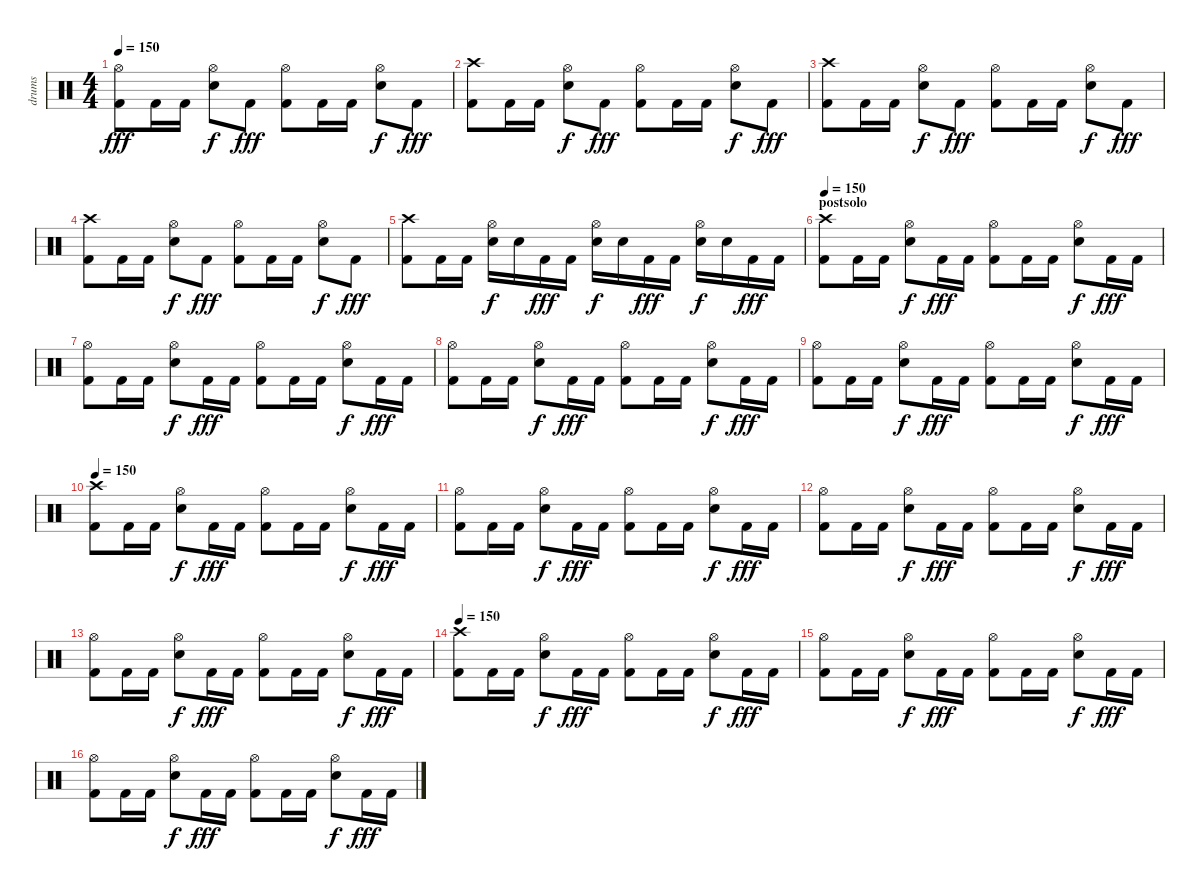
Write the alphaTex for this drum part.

\track ("drums" "drums") {instrument percussion}
\staff {score}
\articulation defaults
\ts (4 4)
\tempo 150
\clef neutral
\ks c
("Hi-Hat (open)" "Kick (hit) 2").8{dy fff} "Kick (hit) 2".16 "Kick (hit) 2".16 ("Hi-Hat (open)" "Snare (hit) 2").8{dy f} "Kick (hit) 2".8{dy fff} ("Hi-Hat (open)" "Kick (hit) 2").8 "Kick (hit) 2".16 "Kick (hit) 2".16 ("Hi-Hat (open)" "Snare (hit) 2").8{dy f} "Kick (hit) 2".8{dy fff} |
("Crash high (hit)" "Kick (hit) 2").8 "Kick (hit) 2".16 "Kick (hit) 2".16 ("Hi-Hat (open)" "Snare (hit) 2").8{dy f} "Kick (hit) 2".8{dy fff} ("Hi-Hat (open)" "Kick (hit) 2").8 "Kick (hit) 2".16 "Kick (hit) 2".16 ("Hi-Hat (open)" "Snare (hit) 2").8{dy f} "Kick (hit) 2".8{dy fff} |
("Crash high (hit)" "Kick (hit) 2").8 "Kick (hit) 2".16 "Kick (hit) 2".16 ("Hi-Hat (open)" "Snare (hit) 2").8{dy f} "Kick (hit) 2".8{dy fff} ("Hi-Hat (open)" "Kick (hit) 2").8 "Kick (hit) 2".16 "Kick (hit) 2".16 ("Hi-Hat (open)" "Snare (hit) 2").8{dy f} "Kick (hit) 2".8{dy fff} |
("Crash high (hit)" "Kick (hit) 2").8 "Kick (hit) 2".16 "Kick (hit) 2".16 ("Hi-Hat (open)" "Snare (hit) 2").8{dy f} "Kick (hit) 2".8{dy fff} ("Hi-Hat (open)" "Kick (hit) 2").8 "Kick (hit) 2".16 "Kick (hit) 2".16 ("Hi-Hat (open)" "Snare (hit) 2").8{dy f} "Kick (hit) 2".8{dy fff} |
("Crash high (hit)" "Kick (hit) 2").8 "Kick (hit) 2".16 "Kick (hit) 2".16 ("Hi-Hat (open)" "Snare (hit) 2").16{dy f} "Snare (hit) 2".16 "Kick (hit) 2".16{dy fff} "Kick (hit) 2".16 ("Hi-Hat (open)" "Snare (hit) 2").16{dy f} "Snare (hit) 2".16 "Kick (hit) 2".16{dy fff} "Kick (hit) 2".16 ("Hi-Hat (open)" "Snare (hit) 2").16{dy f} "Snare (hit) 2".16 "Kick (hit) 2".16{dy fff} "Kick (hit) 2".16 |
\section ("" "postsolo")
\tempo 150
("Crash high (hit)" "Kick (hit) 2").8 "Kick (hit) 2".16 "Kick (hit) 2".16 ("Hi-Hat (open)" "Snare (hit) 2").8{dy f} "Kick (hit) 2".16{dy fff} "Kick (hit) 2".16 ("Hi-Hat (open)" "Kick (hit) 2").8 "Kick (hit) 2".16 "Kick (hit) 2".16 ("Hi-Hat (open)" "Snare (hit) 2").8{dy f} "Kick (hit) 2".16{dy fff} "Kick (hit) 2".16 |
("Hi-Hat (open)" "Kick (hit) 2").8 "Kick (hit) 2".16 "Kick (hit) 2".16 ("Hi-Hat (open)" "Snare (hit) 2").8{dy f} "Kick (hit) 2".16{dy fff} "Kick (hit) 2".16 ("Hi-Hat (open)" "Kick (hit) 2").8 "Kick (hit) 2".16 "Kick (hit) 2".16 ("Hi-Hat (open)" "Snare (hit) 2").8{dy f} "Kick (hit) 2".16{dy fff} "Kick (hit) 2".16 |
("Hi-Hat (open)" "Kick (hit) 2").8 "Kick (hit) 2".16 "Kick (hit) 2".16 ("Hi-Hat (open)" "Snare (hit) 2").8{dy f} "Kick (hit) 2".16{dy fff} "Kick (hit) 2".16 ("Hi-Hat (open)" "Kick (hit) 2").8 "Kick (hit) 2".16 "Kick (hit) 2".16 ("Hi-Hat (open)" "Snare (hit) 2").8{dy f} "Kick (hit) 2".16{dy fff} "Kick (hit) 2".16 |
("Hi-Hat (open)" "Kick (hit) 2").8 "Kick (hit) 2".16 "Kick (hit) 2".16 ("Hi-Hat (open)" "Snare (hit) 2").8{dy f} "Kick (hit) 2".16{dy fff} "Kick (hit) 2".16 ("Hi-Hat (open)" "Kick (hit) 2").8 "Kick (hit) 2".16 "Kick (hit) 2".16 ("Hi-Hat (open)" "Snare (hit) 2").8{dy f} "Kick (hit) 2".16{dy fff} "Kick (hit) 2".16 |
\tempo 150
("Crash high (hit)" "Kick (hit) 2").8 "Kick (hit) 2".16 "Kick (hit) 2".16 ("Hi-Hat (open)" "Snare (hit) 2").8{dy f} "Kick (hit) 2".16{dy fff} "Kick (hit) 2".16 ("Hi-Hat (open)" "Kick (hit) 2").8 "Kick (hit) 2".16 "Kick (hit) 2".16 ("Hi-Hat (open)" "Snare (hit) 2").8{dy f} "Kick (hit) 2".16{dy fff} "Kick (hit) 2".16 |
("Hi-Hat (open)" "Kick (hit) 2").8 "Kick (hit) 2".16 "Kick (hit) 2".16 ("Hi-Hat (open)" "Snare (hit) 2").8{dy f} "Kick (hit) 2".16{dy fff} "Kick (hit) 2".16 ("Hi-Hat (open)" "Kick (hit) 2").8 "Kick (hit) 2".16 "Kick (hit) 2".16 ("Hi-Hat (open)" "Snare (hit) 2").8{dy f} "Kick (hit) 2".16{dy fff} "Kick (hit) 2".16 |
("Hi-Hat (open)" "Kick (hit) 2").8 "Kick (hit) 2".16 "Kick (hit) 2".16 ("Hi-Hat (open)" "Snare (hit) 2").8{dy f} "Kick (hit) 2".16{dy fff} "Kick (hit) 2".16 ("Hi-Hat (open)" "Kick (hit) 2").8 "Kick (hit) 2".16 "Kick (hit) 2".16 ("Hi-Hat (open)" "Snare (hit) 2").8{dy f} "Kick (hit) 2".16{dy fff} "Kick (hit) 2".16 |
("Hi-Hat (open)" "Kick (hit) 2").8 "Kick (hit) 2".16 "Kick (hit) 2".16 ("Hi-Hat (open)" "Snare (hit) 2").8{dy f} "Kick (hit) 2".16{dy fff} "Kick (hit) 2".16 ("Hi-Hat (open)" "Kick (hit) 2").8 "Kick (hit) 2".16 "Kick (hit) 2".16 ("Hi-Hat (open)" "Snare (hit) 2").8{dy f} "Kick (hit) 2".16{dy fff} "Kick (hit) 2".16 |
\tempo 150
("Crash high (hit)" "Kick (hit) 2").8 "Kick (hit) 2".16 "Kick (hit) 2".16 ("Hi-Hat (open)" "Snare (hit) 2").8{dy f} "Kick (hit) 2".16{dy fff} "Kick (hit) 2".16 ("Hi-Hat (open)" "Kick (hit) 2").8 "Kick (hit) 2".16 "Kick (hit) 2".16 ("Hi-Hat (open)" "Snare (hit) 2").8{dy f} "Kick (hit) 2".16{dy fff} "Kick (hit) 2".16 |
("Hi-Hat (open)" "Kick (hit) 2").8 "Kick (hit) 2".16 "Kick (hit) 2".16 ("Hi-Hat (open)" "Snare (hit) 2").8{dy f} "Kick (hit) 2".16{dy fff} "Kick (hit) 2".16 ("Hi-Hat (open)" "Kick (hit) 2").8 "Kick (hit) 2".16 "Kick (hit) 2".16 ("Hi-Hat (open)" "Snare (hit) 2").8{dy f} "Kick (hit) 2".16{dy fff} "Kick (hit) 2".16 |
("Hi-Hat (open)" "Kick (hit) 2").8 "Kick (hit) 2".16 "Kick (hit) 2".16 ("Hi-Hat (open)" "Snare (hit) 2").8{dy f} "Kick (hit) 2".16{dy fff} "Kick (hit) 2".16 ("Hi-Hat (open)" "Kick (hit) 2").8 "Kick (hit) 2".16 "Kick (hit) 2".16 ("Hi-Hat (open)" "Snare (hit) 2").8{dy f} "Kick (hit) 2".16{dy fff} "Kick (hit) 2".16
